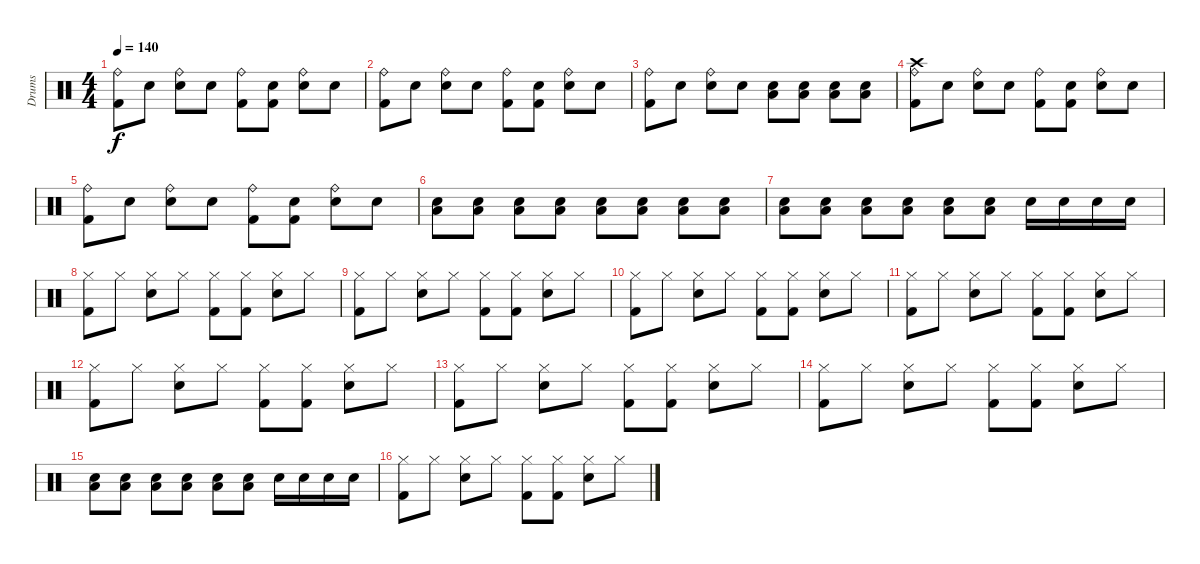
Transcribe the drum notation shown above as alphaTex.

\track ("Drums" "Drums") {instrument percussion}
\staff {score}
\articulation defaults
\ts (4 4)
\tempo 140
\clef neutral
\ks c
("Ride (bell)" "Kick (hit) 2").8{dy f} "Snare (hit)"{x}.8 ("Ride (bell)" "Electric Snare (hit)").8 "Snare (hit)"{x}.8 ("Ride (bell)" "Kick (hit) 2").8 ("Snare (hit)"{x} "Kick (hit) 2").8 ("Ride (bell)" "Electric Snare (hit)").8 "Snare (hit)"{x}.8 |
("Ride (bell)" "Kick (hit) 2").8 "Snare (hit)"{x}.8 ("Ride (bell)" "Electric Snare (hit)").8 "Snare (hit)"{x}.8 ("Ride (bell)" "Kick (hit) 2").8 ("Snare (hit)"{x} "Kick (hit) 2").8 ("Ride (bell)" "Electric Snare (hit)").8 "Snare (hit)"{x}.8 |
("Ride (bell)" "Kick (hit) 2").8 "Snare (hit)"{x}.8 ("Ride (bell)" "Electric Snare (hit)").8 "Snare (hit)"{x}.8 ("Electric Snare (hit)" "Low Tom (hit)").8 ("Electric Snare (hit)" "Low Tom (hit)").8 ("Electric Snare (hit)" "Low Tom (hit)").8 ("Electric Snare (hit)" "Low Tom (hit)").8 |
("Ride (bell)" "Kick (hit) 2" "Crash high (hit)").8 "Snare (hit)"{x}.8 ("Ride (bell)" "Electric Snare (hit)").8 "Snare (hit)"{x}.8 ("Ride (bell)" "Kick (hit) 2").8 ("Snare (hit)"{x} "Kick (hit) 2").8 ("Ride (bell)" "Electric Snare (hit)").8 "Snare (hit)"{x}.8 |
("Ride (bell)" "Kick (hit) 2").8 "Snare (hit)"{x}.8 ("Ride (bell)" "Electric Snare (hit)").8 "Snare (hit)"{x}.8 ("Ride (bell)" "Kick (hit) 2").8 ("Snare (hit)"{x} "Kick (hit) 2").8 ("Ride (bell)" "Electric Snare (hit)").8 "Snare (hit)"{x}.8 |
("Electric Snare (hit)" "Low Tom (hit)").8 ("Electric Snare (hit)" "Low Tom (hit)").8 ("Electric Snare (hit)" "Low Tom (hit)").8 ("Electric Snare (hit)" "Low Tom (hit)").8 ("Electric Snare (hit)" "Low Tom (hit)").8 ("Electric Snare (hit)" "Low Tom (hit)").8 ("Electric Snare (hit)" "Low Tom (hit)").8 ("Electric Snare (hit)" "Low Tom (hit)").8 |
("Electric Snare (hit)" "Low Tom (hit)").8 ("Electric Snare (hit)" "Low Tom (hit)").8 ("Electric Snare (hit)" "Low Tom (hit)").8 ("Electric Snare (hit)" "Low Tom (hit)").8 ("Electric Snare (hit)" "Low Tom (hit)").8 ("Electric Snare (hit)" "Low Tom (hit)").8 "Electric Snare (hit)".16 "Electric Snare (hit)".16 "Electric Snare (hit)".16 "Electric Snare (hit)".16 |
("Hi-Hat (closed)" "Kick (hit) 2").8 "Hi-Hat (closed)".8 ("Hi-Hat (closed)" "Electric Snare (hit)").8 "Hi-Hat (closed)".8 ("Hi-Hat (closed)" "Kick (hit) 2").8 ("Hi-Hat (closed)" "Kick (hit) 2").8 ("Hi-Hat (closed)" "Electric Snare (hit)").8 "Hi-Hat (closed)".8 |
("Hi-Hat (closed)" "Kick (hit) 2").8 "Hi-Hat (closed)".8 ("Hi-Hat (closed)" "Electric Snare (hit)").8 "Hi-Hat (closed)".8 ("Hi-Hat (closed)" "Kick (hit) 2").8 ("Hi-Hat (closed)" "Kick (hit) 2").8 ("Hi-Hat (closed)" "Electric Snare (hit)").8 "Hi-Hat (closed)".8 |
("Hi-Hat (closed)" "Kick (hit) 2").8 "Hi-Hat (closed)".8 ("Hi-Hat (closed)" "Electric Snare (hit)").8 "Hi-Hat (closed)".8 ("Hi-Hat (closed)" "Kick (hit) 2").8 ("Hi-Hat (closed)" "Kick (hit) 2").8 ("Hi-Hat (closed)" "Electric Snare (hit)").8 "Hi-Hat (closed)".8 |
("Hi-Hat (closed)" "Kick (hit) 2").8 "Hi-Hat (closed)".8 ("Hi-Hat (closed)" "Electric Snare (hit)").8 "Hi-Hat (closed)".8 ("Hi-Hat (closed)" "Kick (hit) 2").8 ("Hi-Hat (closed)" "Kick (hit) 2").8 ("Hi-Hat (closed)" "Electric Snare (hit)").8 "Hi-Hat (closed)".8 |
("Hi-Hat (closed)" "Kick (hit) 2").8 "Hi-Hat (closed)".8 ("Hi-Hat (closed)" "Electric Snare (hit)").8 "Hi-Hat (closed)".8 ("Hi-Hat (closed)" "Kick (hit) 2").8 ("Hi-Hat (closed)" "Kick (hit) 2").8 ("Hi-Hat (closed)" "Electric Snare (hit)").8 "Hi-Hat (closed)".8 |
("Hi-Hat (closed)" "Kick (hit) 2").8 "Hi-Hat (closed)".8 ("Hi-Hat (closed)" "Electric Snare (hit)").8 "Hi-Hat (closed)".8 ("Hi-Hat (closed)" "Kick (hit) 2").8 ("Hi-Hat (closed)" "Kick (hit) 2").8 ("Hi-Hat (closed)" "Electric Snare (hit)").8 "Hi-Hat (closed)".8 |
("Hi-Hat (closed)" "Kick (hit) 2").8 "Hi-Hat (closed)".8 ("Hi-Hat (closed)" "Electric Snare (hit)").8 "Hi-Hat (closed)".8 ("Hi-Hat (closed)" "Kick (hit) 2").8 ("Hi-Hat (closed)" "Kick (hit) 2").8 ("Hi-Hat (closed)" "Electric Snare (hit)").8 "Hi-Hat (closed)".8 |
("Electric Snare (hit)" "Low Tom (hit)").8 ("Electric Snare (hit)" "Low Tom (hit)").8 ("Electric Snare (hit)" "Low Tom (hit)").8 ("Electric Snare (hit)" "Low Tom (hit)").8 ("Electric Snare (hit)" "Low Tom (hit)").8 ("Electric Snare (hit)" "Low Tom (hit)").8 "Electric Snare (hit)".16 "Electric Snare (hit)".16 "Electric Snare (hit)".16 "Electric Snare (hit)".16 |
("Hi-Hat (closed)" "Kick (hit) 2").8 "Hi-Hat (closed)".8 ("Hi-Hat (closed)" "Electric Snare (hit)").8 "Hi-Hat (closed)".8 ("Hi-Hat (closed)" "Kick (hit) 2").8 ("Hi-Hat (closed)" "Kick (hit) 2").8 ("Hi-Hat (closed)" "Electric Snare (hit)").8 "Hi-Hat (closed)".8
